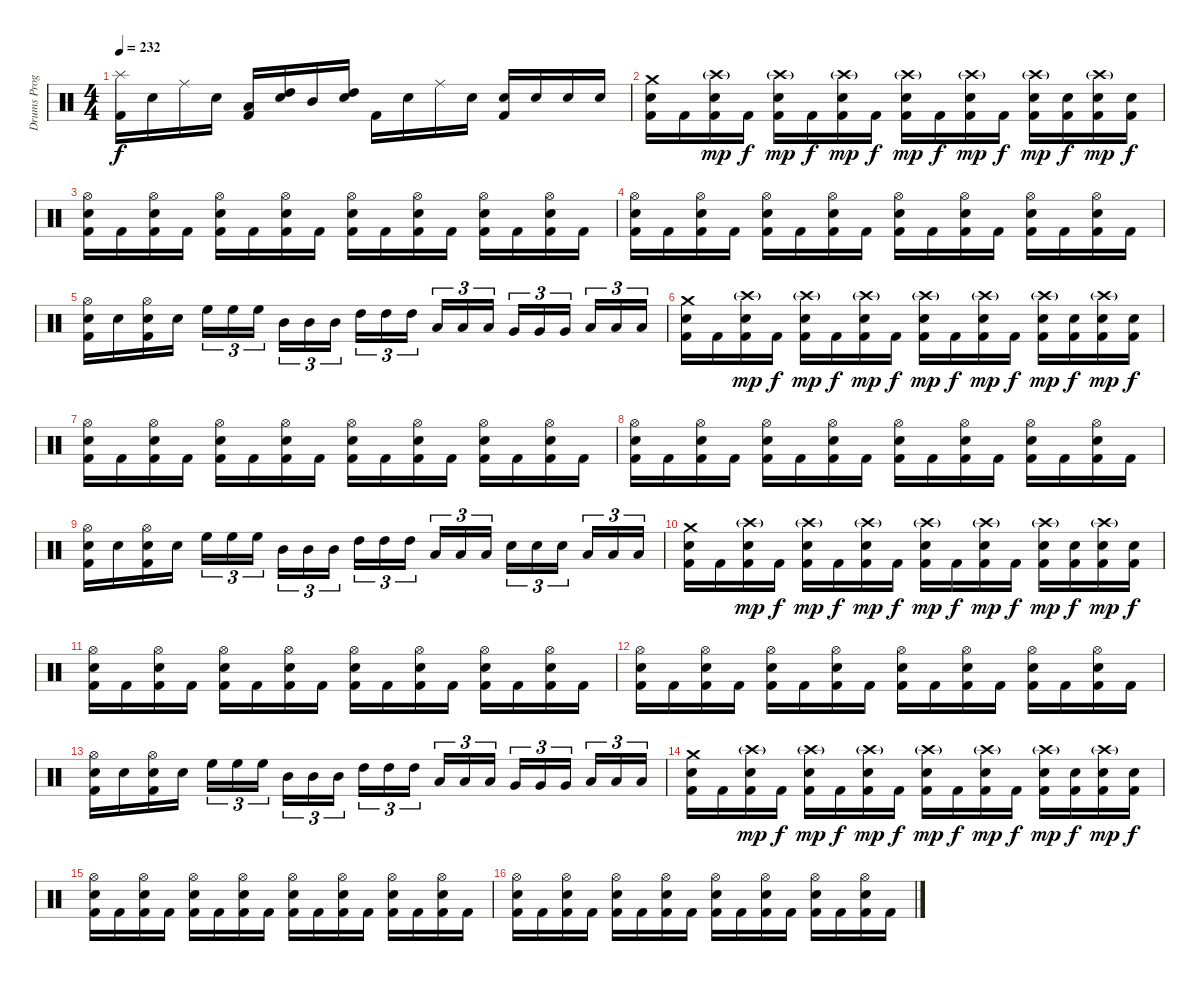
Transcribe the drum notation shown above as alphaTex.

\track ("Drums Programming" "Drums Prog") {instrument percussion}
\staff {score}
\articulation defaults
\ts (4 4)
\tempo 232
\clef neutral
\ks c
("Splash (hit)" "Kick (hit) 2").16{dy f} "Electric Snare (hit)".16 "Ride (middle)".16 "Electric Snare (hit)".16 ("Low Tom (hit)" "Kick (hit) 2").16 ("High Tom (hit)" "Electric Snare (hit)").16 "Mid Tom (hit)".16 ("High Tom (hit)" "Electric Snare (hit)").16 "Kick (hit) 2".16 "Electric Snare (hit)".16 "Ride (middle)".16 "Electric Snare (hit)".16 ("Electric Snare (hit)" "Kick (hit) 2").16 "Electric Snare (hit)".16 "Electric Snare (hit)".16 "Electric Snare (hit)".16 |
("Crash medium (hit)" "Electric Snare (hit)" "Kick (hit) 2").16 "Kick (hit) 2".16 ("Crash high (hit)"{g} "Electric Snare (hit)" "Kick (hit) 2").16{dy mp} "Kick (hit) 2".16{dy f} ("Crash high (hit)"{g} "Electric Snare (hit)" "Kick (hit) 2").16{dy mp} "Kick (hit) 2".16{dy f} ("Crash high (hit)"{g} "Electric Snare (hit)" "Kick (hit) 2").16{dy mp} "Kick (hit) 2".16{dy f} ("Crash high (hit)"{g} "Electric Snare (hit)" "Kick (hit) 2").16{dy mp} "Kick (hit) 2".16{dy f} ("Crash high (hit)"{g} "Electric Snare (hit)" "Kick (hit) 2").16{dy mp} "Kick (hit) 2".16{dy f} ("Crash high (hit)"{g} "Electric Snare (hit)" "Kick (hit) 2").16{dy mp} ("Electric Snare (hit)" "Kick (hit) 2").16{dy f} ("Crash high (hit)"{g} "Electric Snare (hit)" "Kick (hit) 2").16{dy mp} ("Electric Snare (hit)" "Kick (hit) 2").16{dy f} |
("Hi-Hat (open)" "Electric Snare (hit)" "Kick (hit) 2").16 "Kick (hit) 2".16 ("Hi-Hat (open)" "Electric Snare (hit)" "Kick (hit) 2").16 "Kick (hit) 2".16 ("Hi-Hat (open)" "Electric Snare (hit)" "Kick (hit) 2").16 "Kick (hit) 2".16 ("Hi-Hat (open)" "Electric Snare (hit)" "Kick (hit) 2").16 "Kick (hit) 2".16 ("Hi-Hat (open)" "Electric Snare (hit)" "Kick (hit) 2").16 "Kick (hit) 2".16 ("Hi-Hat (open)" "Electric Snare (hit)" "Kick (hit) 2").16 "Kick (hit) 2".16 ("Hi-Hat (open)" "Electric Snare (hit)" "Kick (hit) 2").16 "Kick (hit) 2".16 ("Hi-Hat (open)" "Electric Snare (hit)" "Kick (hit) 2").16 "Kick (hit) 2".16 |
("Hi-Hat (open)" "Electric Snare (hit)" "Kick (hit) 2").16 "Kick (hit) 2".16 ("Hi-Hat (open)" "Electric Snare (hit)" "Kick (hit) 2").16 "Kick (hit) 2".16 ("Hi-Hat (open)" "Electric Snare (hit)" "Kick (hit) 2").16 "Kick (hit) 2".16 ("Hi-Hat (open)" "Electric Snare (hit)" "Kick (hit) 2").16 "Kick (hit) 2".16 ("Hi-Hat (open)" "Electric Snare (hit)" "Kick (hit) 2").16 "Kick (hit) 2".16 ("Hi-Hat (open)" "Electric Snare (hit)" "Kick (hit) 2").16 "Kick (hit) 2".16 ("Hi-Hat (open)" "Electric Snare (hit)" "Kick (hit) 2").16 "Kick (hit) 2".16 ("Hi-Hat (open)" "Electric Snare (hit)" "Kick (hit) 2").16 "Kick (hit) 2".16 |
("Hi-Hat (open)" "Electric Snare (hit)" "Kick (hit) 2").16 "Electric Snare (hit)".16 ("Hi-Hat (open)" "Electric Snare (hit)" "Kick (hit) 2").16 "Electric Snare (hit)".16 "High Floor Tom (hit)".16{tu (3 2)} "High Floor Tom (hit)".16{tu (3 2)} "High Floor Tom (hit)".16{tu (3 2)} "Mid Tom (hit)".16{tu (3 2)} "Mid Tom (hit)".16{tu (3 2)} "Mid Tom (hit)".16{tu (3 2)} "High Tom (hit)".16{tu (3 2)} "High Tom (hit)".16{tu (3 2)} "High Tom (hit)".16{tu (3 2)} "Low Tom (hit)".16{tu (3 2)} "Low Tom (hit)".16{tu (3 2)} "Low Tom (hit)".16{tu (3 2)} "Very Low Tom (hit)".16{tu (3 2)} "Very Low Tom (hit)".16{tu (3 2)} "Very Low Tom (hit)".16{tu (3 2)} "Low Floor Tom (hit)".16{tu (3 2)} "Low Floor Tom (hit)".16{tu (3 2)} "Low Floor Tom (hit)".16{tu (3 2)} |
("Crash medium (hit)" "Electric Snare (hit)" "Kick (hit) 2").16 "Kick (hit) 2".16 ("Crash high (hit)"{g} "Electric Snare (hit)" "Kick (hit) 2").16{dy mp} "Kick (hit) 2".16{dy f} ("Crash high (hit)"{g} "Electric Snare (hit)" "Kick (hit) 2").16{dy mp} "Kick (hit) 2".16{dy f} ("Crash high (hit)"{g} "Electric Snare (hit)" "Kick (hit) 2").16{dy mp} "Kick (hit) 2".16{dy f} ("Crash high (hit)"{g} "Electric Snare (hit)" "Kick (hit) 2").16{dy mp} "Kick (hit) 2".16{dy f} ("Crash high (hit)"{g} "Electric Snare (hit)" "Kick (hit) 2").16{dy mp} "Kick (hit) 2".16{dy f} ("Crash high (hit)"{g} "Electric Snare (hit)" "Kick (hit) 2").16{dy mp} ("Electric Snare (hit)" "Kick (hit) 2").16{dy f} ("Crash high (hit)"{g} "Electric Snare (hit)" "Kick (hit) 2").16{dy mp} ("Electric Snare (hit)" "Kick (hit) 2").16{dy f} |
("Hi-Hat (open)" "Electric Snare (hit)" "Kick (hit) 2").16 "Kick (hit) 2".16 ("Hi-Hat (open)" "Electric Snare (hit)" "Kick (hit) 2").16 "Kick (hit) 2".16 ("Hi-Hat (open)" "Electric Snare (hit)" "Kick (hit) 2").16 "Kick (hit) 2".16 ("Hi-Hat (open)" "Electric Snare (hit)" "Kick (hit) 2").16 "Kick (hit) 2".16 ("Hi-Hat (open)" "Electric Snare (hit)" "Kick (hit) 2").16 "Kick (hit) 2".16 ("Hi-Hat (open)" "Electric Snare (hit)" "Kick (hit) 2").16 "Kick (hit) 2".16 ("Hi-Hat (open)" "Electric Snare (hit)" "Kick (hit) 2").16 "Kick (hit) 2".16 ("Hi-Hat (open)" "Electric Snare (hit)" "Kick (hit) 2").16 "Kick (hit) 2".16 |
("Hi-Hat (open)" "Electric Snare (hit)" "Kick (hit) 2").16 "Kick (hit) 2".16 ("Hi-Hat (open)" "Electric Snare (hit)" "Kick (hit) 2").16 "Kick (hit) 2".16 ("Hi-Hat (open)" "Electric Snare (hit)" "Kick (hit) 2").16 "Kick (hit) 2".16 ("Hi-Hat (open)" "Electric Snare (hit)" "Kick (hit) 2").16 "Kick (hit) 2".16 ("Hi-Hat (open)" "Electric Snare (hit)" "Kick (hit) 2").16 "Kick (hit) 2".16 ("Hi-Hat (open)" "Electric Snare (hit)" "Kick (hit) 2").16 "Kick (hit) 2".16 ("Hi-Hat (open)" "Electric Snare (hit)" "Kick (hit) 2").16 "Kick (hit) 2".16 ("Hi-Hat (open)" "Electric Snare (hit)" "Kick (hit) 2").16 "Kick (hit) 2".16 |
("Hi-Hat (open)" "Electric Snare (hit)" "Kick (hit) 2").16 "Electric Snare (hit)".16 ("Hi-Hat (open)" "Electric Snare (hit)" "Kick (hit) 2").16 "Electric Snare (hit)".16 "High Floor Tom (hit)".16{tu (3 2)} "High Floor Tom (hit)".16{tu (3 2)} "High Floor Tom (hit)".16{tu (3 2)} "Mid Tom (hit)".16{tu (3 2)} "Mid Tom (hit)".16{tu (3 2)} "Mid Tom (hit)".16{tu (3 2)} "High Tom (hit)".16{tu (3 2)} "High Tom (hit)".16{tu (3 2)} "High Tom (hit)".16{tu (3 2)} "Low Tom (hit)".16{tu (3 2)} "Low Tom (hit)".16{tu (3 2)} "Low Tom (hit)".16{tu (3 2)} "Electric Snare (hit)".16{tu (3 2)} "Electric Snare (hit)".16{tu (3 2)} "Electric Snare (hit)".16{tu (3 2)} "Low Floor Tom (hit)".16{tu (3 2)} "Low Floor Tom (hit)".16{tu (3 2)} "Low Floor Tom (hit)".16{tu (3 2)} |
("Crash medium (hit)" "Electric Snare (hit)" "Kick (hit) 2").16 "Kick (hit) 2".16 ("Crash high (hit)"{g} "Electric Snare (hit)" "Kick (hit) 2").16{dy mp} "Kick (hit) 2".16{dy f} ("Crash high (hit)"{g} "Electric Snare (hit)" "Kick (hit) 2").16{dy mp} "Kick (hit) 2".16{dy f} ("Crash high (hit)"{g} "Electric Snare (hit)" "Kick (hit) 2").16{dy mp} "Kick (hit) 2".16{dy f} ("Crash high (hit)"{g} "Electric Snare (hit)" "Kick (hit) 2").16{dy mp} "Kick (hit) 2".16{dy f} ("Crash high (hit)"{g} "Electric Snare (hit)" "Kick (hit) 2").16{dy mp} "Kick (hit) 2".16{dy f} ("Crash high (hit)"{g} "Electric Snare (hit)" "Kick (hit) 2").16{dy mp} ("Electric Snare (hit)" "Kick (hit) 2").16{dy f} ("Crash high (hit)"{g} "Electric Snare (hit)" "Kick (hit) 2").16{dy mp} ("Electric Snare (hit)" "Kick (hit) 2").16{dy f} |
("Hi-Hat (open)" "Electric Snare (hit)" "Kick (hit) 2").16 "Kick (hit) 2".16 ("Hi-Hat (open)" "Electric Snare (hit)" "Kick (hit) 2").16 "Kick (hit) 2".16 ("Hi-Hat (open)" "Electric Snare (hit)" "Kick (hit) 2").16 "Kick (hit) 2".16 ("Hi-Hat (open)" "Electric Snare (hit)" "Kick (hit) 2").16 "Kick (hit) 2".16 ("Hi-Hat (open)" "Electric Snare (hit)" "Kick (hit) 2").16 "Kick (hit) 2".16 ("Hi-Hat (open)" "Electric Snare (hit)" "Kick (hit) 2").16 "Kick (hit) 2".16 ("Hi-Hat (open)" "Electric Snare (hit)" "Kick (hit) 2").16 "Kick (hit) 2".16 ("Hi-Hat (open)" "Electric Snare (hit)" "Kick (hit) 2").16 "Kick (hit) 2".16 |
("Hi-Hat (open)" "Electric Snare (hit)" "Kick (hit) 2").16 "Kick (hit) 2".16 ("Hi-Hat (open)" "Electric Snare (hit)" "Kick (hit) 2").16 "Kick (hit) 2".16 ("Hi-Hat (open)" "Electric Snare (hit)" "Kick (hit) 2").16 "Kick (hit) 2".16 ("Hi-Hat (open)" "Electric Snare (hit)" "Kick (hit) 2").16 "Kick (hit) 2".16 ("Hi-Hat (open)" "Electric Snare (hit)" "Kick (hit) 2").16 "Kick (hit) 2".16 ("Hi-Hat (open)" "Electric Snare (hit)" "Kick (hit) 2").16 "Kick (hit) 2".16 ("Hi-Hat (open)" "Electric Snare (hit)" "Kick (hit) 2").16 "Kick (hit) 2".16 ("Hi-Hat (open)" "Electric Snare (hit)" "Kick (hit) 2").16 "Kick (hit) 2".16 |
("Hi-Hat (open)" "Electric Snare (hit)" "Kick (hit) 2").16 "Electric Snare (hit)".16 ("Hi-Hat (open)" "Electric Snare (hit)" "Kick (hit) 2").16 "Electric Snare (hit)".16 "High Floor Tom (hit)".16{tu (3 2)} "High Floor Tom (hit)".16{tu (3 2)} "High Floor Tom (hit)".16{tu (3 2)} "Mid Tom (hit)".16{tu (3 2)} "Mid Tom (hit)".16{tu (3 2)} "Mid Tom (hit)".16{tu (3 2)} "High Tom (hit)".16{tu (3 2)} "High Tom (hit)".16{tu (3 2)} "High Tom (hit)".16{tu (3 2)} "Low Tom (hit)".16{tu (3 2)} "Low Tom (hit)".16{tu (3 2)} "Low Tom (hit)".16{tu (3 2)} "Very Low Tom (hit)".16{tu (3 2)} "Very Low Tom (hit)".16{tu (3 2)} "Very Low Tom (hit)".16{tu (3 2)} "Low Floor Tom (hit)".16{tu (3 2)} "Low Floor Tom (hit)".16{tu (3 2)} "Low Floor Tom (hit)".16{tu (3 2)} |
("Crash medium (hit)" "Electric Snare (hit)" "Kick (hit) 2").16 "Kick (hit) 2".16 ("Crash high (hit)"{g} "Electric Snare (hit)" "Kick (hit) 2").16{dy mp} "Kick (hit) 2".16{dy f} ("Crash high (hit)"{g} "Electric Snare (hit)" "Kick (hit) 2").16{dy mp} "Kick (hit) 2".16{dy f} ("Crash high (hit)"{g} "Electric Snare (hit)" "Kick (hit) 2").16{dy mp} "Kick (hit) 2".16{dy f} ("Crash high (hit)"{g} "Electric Snare (hit)" "Kick (hit) 2").16{dy mp} "Kick (hit) 2".16{dy f} ("Crash high (hit)"{g} "Electric Snare (hit)" "Kick (hit) 2").16{dy mp} "Kick (hit) 2".16{dy f} ("Crash high (hit)"{g} "Electric Snare (hit)" "Kick (hit) 2").16{dy mp} ("Electric Snare (hit)" "Kick (hit) 2").16{dy f} ("Crash high (hit)"{g} "Electric Snare (hit)" "Kick (hit) 2").16{dy mp} ("Electric Snare (hit)" "Kick (hit) 2").16{dy f} |
("Hi-Hat (open)" "Electric Snare (hit)" "Kick (hit) 2").16 "Kick (hit) 2".16 ("Hi-Hat (open)" "Electric Snare (hit)" "Kick (hit) 2").16 "Kick (hit) 2".16 ("Hi-Hat (open)" "Electric Snare (hit)" "Kick (hit) 2").16 "Kick (hit) 2".16 ("Hi-Hat (open)" "Electric Snare (hit)" "Kick (hit) 2").16 "Kick (hit) 2".16 ("Hi-Hat (open)" "Electric Snare (hit)" "Kick (hit) 2").16 "Kick (hit) 2".16 ("Hi-Hat (open)" "Electric Snare (hit)" "Kick (hit) 2").16 "Kick (hit) 2".16 ("Hi-Hat (open)" "Electric Snare (hit)" "Kick (hit) 2").16 "Kick (hit) 2".16 ("Hi-Hat (open)" "Electric Snare (hit)" "Kick (hit) 2").16 "Kick (hit) 2".16 |
("Hi-Hat (open)" "Electric Snare (hit)" "Kick (hit) 2").16 "Kick (hit) 2".16 ("Hi-Hat (open)" "Electric Snare (hit)" "Kick (hit) 2").16 "Kick (hit) 2".16 ("Hi-Hat (open)" "Electric Snare (hit)" "Kick (hit) 2").16 "Kick (hit) 2".16 ("Hi-Hat (open)" "Electric Snare (hit)" "Kick (hit) 2").16 "Kick (hit) 2".16 ("Hi-Hat (open)" "Electric Snare (hit)" "Kick (hit) 2").16 "Kick (hit) 2".16 ("Hi-Hat (open)" "Electric Snare (hit)" "Kick (hit) 2").16 "Kick (hit) 2".16 ("Hi-Hat (open)" "Electric Snare (hit)" "Kick (hit) 2").16 "Kick (hit) 2".16 ("Hi-Hat (open)" "Electric Snare (hit)" "Kick (hit) 2").16 "Kick (hit) 2".16
